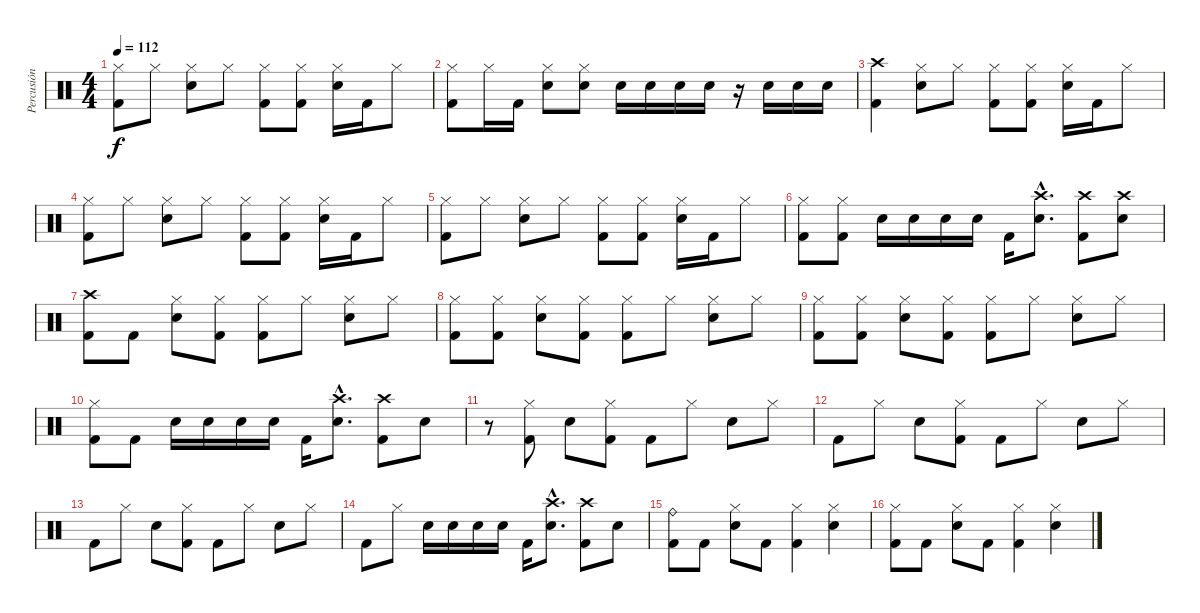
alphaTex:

\track ("Percusión" "Percusión") {instrument percussion}
\staff {score}
\articulation defaults
\ts (4 4)
\tempo 112
\clef neutral
\ks c
("Hi-Hat (closed)" "Kick (hit) 2").8{dy f} "Hi-Hat (closed)".8 ("Hi-Hat (closed)" "Electric Snare (hit)").8 "Hi-Hat (closed)".8 ("Hi-Hat (closed)" "Kick (hit) 2").8 ("Hi-Hat (closed)" "Kick (hit) 2").8 ("Hi-Hat (closed)" "Electric Snare (hit)").16 "Kick (hit) 2".16 "Hi-Hat (closed)".8 |
("Hi-Hat (closed)" "Kick (hit) 2").8 "Hi-Hat (closed)".16 "Kick (hit) 2".16 ("Hi-Hat (closed)" "Electric Snare (hit)").8 ("Hi-Hat (closed)" "Electric Snare (hit)").8 "Electric Snare (hit)".16 "Electric Snare (hit)".16 "Electric Snare (hit)".16 "Electric Snare (hit)".16 r.16 "Electric Snare (hit)".16 "Electric Snare (hit)".16 "Electric Snare (hit)".16 |
("Crash high (hit)" "Kick (hit) 2").4 ("Hi-Hat (closed)" "Electric Snare (hit)").8 "Hi-Hat (closed)".8 ("Hi-Hat (closed)" "Kick (hit) 2").8 ("Hi-Hat (closed)" "Kick (hit) 2").8 ("Hi-Hat (closed)" "Electric Snare (hit)").16 "Kick (hit) 2".16 "Hi-Hat (closed)".8 |
("Hi-Hat (closed)" "Kick (hit) 2").8 "Hi-Hat (closed)".8 ("Hi-Hat (closed)" "Electric Snare (hit)").8 "Hi-Hat (closed)".8 ("Hi-Hat (closed)" "Kick (hit) 2").8 ("Hi-Hat (closed)" "Kick (hit) 2").8 ("Hi-Hat (closed)" "Electric Snare (hit)").16 "Kick (hit) 2".16 "Hi-Hat (closed)".8 |
("Hi-Hat (closed)" "Kick (hit) 2").8 "Hi-Hat (closed)".8 ("Hi-Hat (closed)" "Electric Snare (hit)").8 "Hi-Hat (closed)".8 ("Hi-Hat (closed)" "Kick (hit) 2").8 ("Hi-Hat (closed)" "Kick (hit) 2").8 ("Hi-Hat (closed)" "Electric Snare (hit)").16 "Kick (hit) 2".16 "Hi-Hat (closed)".8 |
("Hi-Hat (closed)" "Kick (hit) 2").8 ("Hi-Hat (closed)" "Kick (hit) 2").8 "Electric Snare (hit)".16 "Electric Snare (hit)".16 "Electric Snare (hit)".16 "Electric Snare (hit)".16 "Kick (hit) 2".16 ("Crash high (hit)"{hac} "Electric Snare (hit)"{hac}).8{d} ("Crash high (hit)" "Kick (hit) 2").8 ("Crash high (hit)" "Electric Snare (hit)").8 |
("Crash high (hit)" "Kick (hit) 2").8 "Kick (hit) 2".8 ("Hi-Hat (closed)" "Electric Snare (hit)").8 ("Hi-Hat (closed)" "Kick (hit) 2").8 ("Hi-Hat (closed)" "Kick (hit) 2").8 "Hi-Hat (closed)".8 ("Hi-Hat (closed)" "Electric Snare (hit)").8 "Hi-Hat (closed)".8 |
("Hi-Hat (closed)" "Kick (hit) 2").8 ("Hi-Hat (closed)" "Kick (hit) 2").8 ("Hi-Hat (closed)" "Electric Snare (hit)").8 ("Hi-Hat (closed)" "Kick (hit) 2").8 ("Hi-Hat (closed)" "Kick (hit) 2").8 "Hi-Hat (closed)".8 ("Hi-Hat (closed)" "Electric Snare (hit)").8 "Hi-Hat (closed)".8 |
("Hi-Hat (closed)" "Kick (hit) 2").8 ("Hi-Hat (closed)" "Kick (hit) 2").8 ("Hi-Hat (closed)" "Electric Snare (hit)").8 ("Hi-Hat (closed)" "Kick (hit) 2").8 ("Hi-Hat (closed)" "Kick (hit) 2").8 "Hi-Hat (closed)".8 ("Hi-Hat (closed)" "Electric Snare (hit)").8 "Hi-Hat (closed)".8 |
("Hi-Hat (closed)" "Kick (hit) 2").8 "Kick (hit) 2".8 "Electric Snare (hit)".16 "Electric Snare (hit)".16 "Electric Snare (hit)".16 "Electric Snare (hit)".16 "Kick (hit) 2".16 ("Crash high (hit)"{hac} "Electric Snare (hit)"{hac}).8{d} ("Crash high (hit)" "Kick (hit) 2").8 "Electric Snare (hit)".8 |
r.8 ("Hi-Hat (closed)" "Kick (hit) 2").8 "Electric Snare (hit)".8 ("Hi-Hat (closed)" "Kick (hit) 2").8 "Kick (hit) 2".8 "Hi-Hat (closed)".8 "Electric Snare (hit)".8 "Hi-Hat (closed)".8 |
"Kick (hit) 2".8 "Hi-Hat (closed)".8 "Electric Snare (hit)".8 ("Hi-Hat (closed)" "Kick (hit) 2").8 "Kick (hit) 2".8 "Hi-Hat (closed)".8 "Electric Snare (hit)".8 "Hi-Hat (closed)".8 |
"Kick (hit) 2".8 "Hi-Hat (closed)".8 "Electric Snare (hit)".8 ("Hi-Hat (closed)" "Kick (hit) 2").8 "Kick (hit) 2".8 "Hi-Hat (closed)".8 "Electric Snare (hit)".8 "Hi-Hat (closed)".8 |
"Kick (hit) 2".8 "Hi-Hat (closed)".8 "Electric Snare (hit)".16 "Electric Snare (hit)".16 "Electric Snare (hit)".16 "Electric Snare (hit)".16 "Kick (hit) 2".16 ("Crash high (hit)"{hac} "Electric Snare (hit)"{hac}).8{d} ("Crash high (hit)" "Kick (hit) 2").8 "Electric Snare (hit)".8 |
("Ride (bell)" "Kick (hit) 2").8 "Kick (hit) 2".8 ("Hi-Hat (closed)" "Electric Snare (hit)").8 "Kick (hit) 2".8 ("Hi-Hat (closed)" "Kick (hit) 2").4 ("Hi-Hat (closed)" "Electric Snare (hit)").4 |
("Hi-Hat (closed)" "Kick (hit) 2").8 "Kick (hit) 2".8 ("Hi-Hat (closed)" "Electric Snare (hit)").8 "Kick (hit) 2".8 ("Hi-Hat (closed)" "Kick (hit) 2").4 ("Hi-Hat (closed)" "Electric Snare (hit)").4
